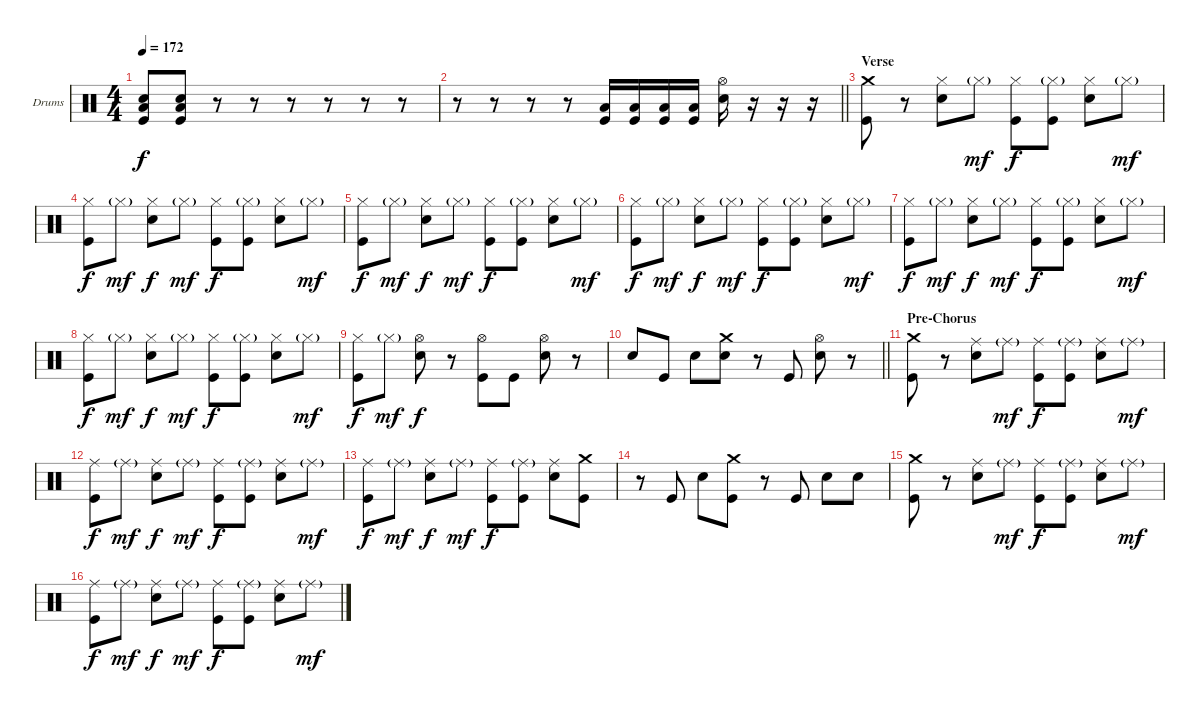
\bracketExtendMode groupsimilarinstruments
\firstSystemTrackNameOrientation horizontal
\otherSystemsTrackNameOrientation horizontal
\track ("Drumkit" "Drums") {instrument percussion}
\staff {score}
\articulation defaults
\ts (4 4)
\tempo 172
\clef neutral
\ks c
("Snare (hit) 2" "Low Tom (hit)" "Kick (hit)").8{dy f} ("Snare (hit) 2" "Low Tom (hit)" "Kick (hit)").8 r.8 r.8 r.8 r.8 r.8 r.8 |
\barLineRight lightlight
r.8 r.8 r.8 r.8 ("Low Tom (hit)" "Kick (hit)").16 ("Low Tom (hit)" "Kick (hit)").16 ("Low Tom (hit)" "Kick (hit)").16 ("Low Tom (hit)" "Kick (hit)").16 ("Hi-Hat (open)" "Snare (hit) 2").16 r.16 r.16 r.16 |
\section ("" "Verse")
("Crash medium (hit)" "Kick (hit)").8 r.8 ("Hi-Hat (closed)" "Snare (hit) 2").8 "Hi-Hat (closed)"{g}.8{dy mf} ("Hi-Hat (closed)" "Kick (hit)").8{dy f} ("Hi-Hat (closed)"{g} "Kick (hit)").8 ("Hi-Hat (closed)" "Snare (hit) 2").8 "Hi-Hat (closed)"{g}.8{dy mf} |
("Hi-Hat (closed)" "Kick (hit)").8{dy f} "Hi-Hat (closed)"{g}.8{dy mf} ("Hi-Hat (closed)" "Snare (hit) 2").8{dy f} "Hi-Hat (closed)"{g}.8{dy mf} ("Hi-Hat (closed)" "Kick (hit)").8{dy f} ("Hi-Hat (closed)"{g} "Kick (hit)").8 ("Hi-Hat (closed)" "Snare (hit) 2").8 "Hi-Hat (closed)"{g}.8{dy mf} |
("Hi-Hat (closed)" "Kick (hit)").8{dy f} "Hi-Hat (closed)"{g}.8{dy mf} ("Hi-Hat (closed)" "Snare (hit) 2").8{dy f} "Hi-Hat (closed)"{g}.8{dy mf} ("Hi-Hat (closed)" "Kick (hit)").8{dy f} ("Hi-Hat (closed)"{g} "Kick (hit)").8 ("Hi-Hat (closed)" "Snare (hit) 2").8 "Hi-Hat (closed)"{g}.8{dy mf} |
("Hi-Hat (closed)" "Kick (hit)").8{dy f} "Hi-Hat (closed)"{g}.8{dy mf} ("Hi-Hat (closed)" "Snare (hit) 2").8{dy f} "Hi-Hat (closed)"{g}.8{dy mf} ("Hi-Hat (closed)" "Kick (hit)").8{dy f} ("Hi-Hat (closed)"{g} "Kick (hit)").8 ("Hi-Hat (closed)" "Snare (hit) 2").8 "Hi-Hat (closed)"{g}.8{dy mf} |
("Hi-Hat (closed)" "Kick (hit)").8{dy f} "Hi-Hat (closed)"{g}.8{dy mf} ("Hi-Hat (closed)" "Snare (hit) 2").8{dy f} "Hi-Hat (closed)"{g}.8{dy mf} ("Hi-Hat (closed)" "Kick (hit)").8{dy f} ("Hi-Hat (closed)"{g} "Kick (hit)").8 ("Hi-Hat (closed)" "Snare (hit) 2").8 "Hi-Hat (closed)"{g}.8{dy mf} |
("Hi-Hat (closed)" "Kick (hit)").8{dy f} "Hi-Hat (closed)"{g}.8{dy mf} ("Hi-Hat (closed)" "Snare (hit) 2").8{dy f} "Hi-Hat (closed)"{g}.8{dy mf} ("Hi-Hat (closed)" "Kick (hit)").8{dy f} ("Hi-Hat (closed)"{g} "Kick (hit)").8 ("Hi-Hat (closed)" "Snare (hit) 2").8 "Hi-Hat (closed)"{g}.8{dy mf} |
("Hi-Hat (closed)" "Kick (hit)").8{dy f} "Hi-Hat (closed)"{g}.8{dy mf} ("Hi-Hat (open)" "Snare (hit) 2").8{dy f} r.8 ("Hi-Hat (open)" "Kick (hit)").8 "Kick (hit)".8 ("Hi-Hat (open)" "Snare (hit) 2").8 r.8 |
\barLineRight lightlight "Snare (hit) 2".8 "Kick (hit)".8 "Snare (hit) 2".8
("Crash medium (hit)" "Snare (hit) 2").8 r.8 "Kick (hit)".8 ("Hi-Hat (open)" "Snare (hit) 2").8 r.8 |
\section ("" "Pre-Chorus")
("Crash medium (hit)" "Kick (hit)").8 r.8 ("Ride (middle)" "Snare (hit) 2").8 "Ride (middle)"{g}.8{dy mf} ("Ride (middle)" "Kick (hit)").8{dy f} ("Ride (middle)"{g} "Kick (hit)").8 ("Ride (middle)" "Snare (hit) 2").8 "Ride (middle)"{g}.8{dy mf} |
("Ride (middle)" "Kick (hit)").8{dy f} "Ride (middle)"{g}.8{dy mf} ("Ride (middle)" "Snare (hit) 2").8{dy f} "Ride (middle)"{g}.8{dy mf} ("Ride (middle)" "Kick (hit)").8{dy f} ("Ride (middle)"{g} "Kick (hit)").8 ("Ride (middle)" "Snare (hit) 2").8 "Ride (middle)"{g}.8{dy mf} |
("Ride (middle)" "Kick (hit)").8{dy f} "Ride (middle)"{g}.8{dy mf} ("Ride (middle)" "Snare (hit) 2").8{dy f} "Ride (middle)"{g}.8{dy mf} ("Ride (middle)" "Kick (hit)").8{dy f} ("Ride (middle)"{g} "Kick (hit)").8 ("Ride (middle)" "Snare (hit) 2").8 ("Crash medium (hit)" "Kick (hit)").8 |
r.8 "Kick (hit)".8 "Snare (hit) 2".8 ("Crash medium (hit)" "Kick (hit)").8 r.8 "Kick (hit)".8 "Snare (hit) 2".8 "Snare (hit) 2".8 |
("Crash medium (hit)" "Kick (hit)").8 r.8 ("Ride (middle)" "Snare (hit) 2").8 "Ride (middle)"{g}.8{dy mf} ("Ride (middle)" "Kick (hit)").8{dy f} ("Ride (middle)"{g} "Kick (hit)").8 ("Ride (middle)" "Snare (hit) 2").8 "Ride (middle)"{g}.8{dy mf} |
("Ride (middle)" "Kick (hit)").8{dy f} "Ride (middle)"{g}.8{dy mf} ("Ride (middle)" "Snare (hit) 2").8{dy f} "Ride (middle)"{g}.8{dy mf} ("Ride (middle)" "Kick (hit)").8{dy f} ("Ride (middle)"{g} "Kick (hit)").8 ("Ride (middle)" "Snare (hit) 2").8 "Ride (middle)"{g}.8{dy mf}
